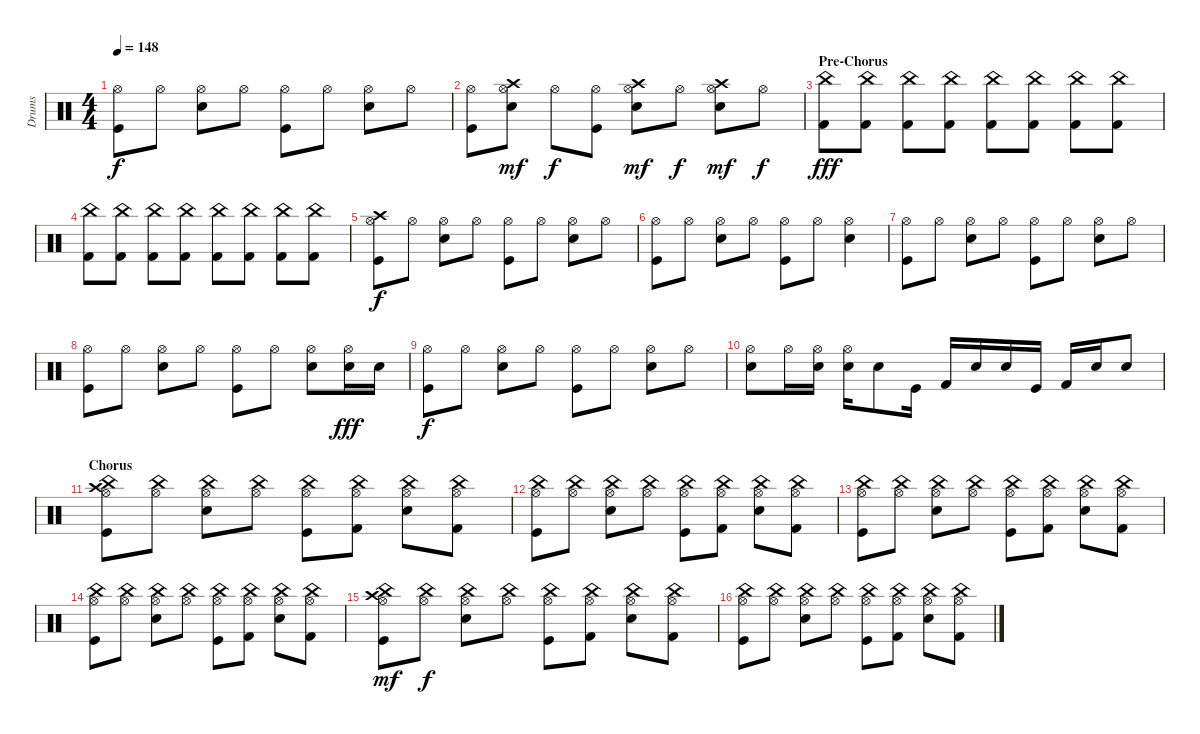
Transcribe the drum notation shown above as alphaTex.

\track ("Drums" "Drums") {instrument percussion}
\staff {score}
\articulation defaults
\ts (4 4)
\tempo 148
\clef neutral
\ks c
("Hi-Hat (open)" "Kick (hit)").8{dy f} "Hi-Hat (open)".8 ("Hi-Hat (open)" "Snare (hit) 2").8 "Hi-Hat (open)".8 ("Hi-Hat (open)" "Kick (hit)").8 "Hi-Hat (open)".8 ("Hi-Hat (open)" "Snare (hit) 2").8 "Hi-Hat (open)".8 |
("Hi-Hat (open)" "Kick (hit)").8 ("Crash high (hit)" "Hi-Hat (open)" "Snare (hit) 2").8{dy mf} "Hi-Hat (open)".8{dy f} ("Hi-Hat (open)" "Kick (hit)").8 ("Crash high (hit)" "Hi-Hat (open)" "Snare (hit) 2").8{dy mf} "Hi-Hat (open)".8{dy f} ("Crash high (hit)" "Hi-Hat (open)" "Snare (hit) 2").8{dy mf} "Hi-Hat (open)".8{dy f} |
\section ("" "Pre-Chorus")
("China (hit)" "Kick (hit) 2").8{dy fff} ("China (hit)" "Kick (hit) 2").8 ("China (hit)" "Kick (hit) 2").8 ("China (hit)" "Kick (hit) 2").8 ("China (hit)" "Kick (hit) 2").8 ("China (hit)" "Kick (hit) 2").8 ("China (hit)" "Kick (hit) 2").8 ("China (hit)" "Kick (hit) 2").8 |
("China (hit)" "Kick (hit) 2").8 ("China (hit)" "Kick (hit) 2").8 ("China (hit)" "Kick (hit) 2").8 ("China (hit)" "Kick (hit) 2").8 ("China (hit)" "Kick (hit) 2").8 ("China (hit)" "Kick (hit) 2").8 ("China (hit)" "Kick (hit) 2").8 ("China (hit)" "Kick (hit) 2").8 |
("Crash high (hit)" "Hi-Hat (open)" "Kick (hit)").8{dy f} "Hi-Hat (open)".8 ("Hi-Hat (open)" "Snare (hit) 2").8 "Hi-Hat (open)".8 ("Hi-Hat (open)" "Kick (hit)").8 "Hi-Hat (open)".8 ("Hi-Hat (open)" "Snare (hit) 2").8 "Hi-Hat (open)".8 |
("Hi-Hat (open)" "Kick (hit)").8 "Hi-Hat (open)".8 ("Hi-Hat (open)" "Snare (hit) 2").8 "Hi-Hat (open)".8 ("Hi-Hat (open)" "Kick (hit)").8 "Hi-Hat (open)".8 ("Hi-Hat (open)" "Snare (hit) 2").4 |
("Hi-Hat (open)" "Kick (hit)").8 "Hi-Hat (open)".8 ("Hi-Hat (open)" "Snare (hit) 2").8 "Hi-Hat (open)".8 ("Hi-Hat (open)" "Kick (hit)").8 "Hi-Hat (open)".8 ("Hi-Hat (open)" "Snare (hit) 2").8 "Hi-Hat (open)".8 |
("Hi-Hat (open)" "Kick (hit)").8 "Hi-Hat (open)".8 ("Hi-Hat (open)" "Snare (hit) 2").8 "Hi-Hat (open)".8 ("Hi-Hat (open)" "Kick (hit)").8 "Hi-Hat (open)".8 ("Hi-Hat (open)" "Snare (hit) 2").8 ("Hi-Hat (open)" "Electric Snare (hit)").16{dy fff} "Electric Snare (hit)".16 |
("Hi-Hat (open)" "Kick (hit)").8{dy f} "Hi-Hat (open)".8 ("Hi-Hat (open)" "Snare (hit) 2").8 "Hi-Hat (open)".8 ("Hi-Hat (open)" "Kick (hit)").8 "Hi-Hat (open)".8 ("Hi-Hat (open)" "Snare (hit) 2").8 "Hi-Hat (open)".8 |
("Hi-Hat (open)" "Snare (hit) 2").8 "Hi-Hat (open)".16 ("Hi-Hat (open)" "Snare (hit) 2").16 ("Hi-Hat (open)" "Electric Snare (hit)").16 "Snare (hit) 2".8 "Kick (hit)".16 "Kick (hit) 2".16 "Snare (hit) 2".16 "Electric Snare (hit)".16 "Kick (hit)".16 "Kick (hit) 2".16 "Snare (hit) 2".16 "Electric Snare (hit)".8 |
\section ("" "Chorus")
("Crash high (hit)" "Hi-Hat (open)" "China (hit)" "Kick (hit)").8 ("Hi-Hat (open)" "China (hit)").8 ("Hi-Hat (open)" "China (hit)" "Snare (hit) 2").8 ("Hi-Hat (open)" "China (hit)").8 ("Hi-Hat (open)" "China (hit)" "Kick (hit)").8 ("Hi-Hat (open)" "China (hit)" "Kick (hit) 2").8 ("Hi-Hat (open)" "China (hit)" "Snare (hit) 2").8 ("Hi-Hat (open)" "China (hit)" "Kick (hit) 2").8 |
("Hi-Hat (open)" "China (hit)" "Kick (hit)").8 ("Hi-Hat (open)" "China (hit)").8 ("Hi-Hat (open)" "China (hit)" "Snare (hit) 2").8 ("Hi-Hat (open)" "China (hit)").8 ("Hi-Hat (open)" "China (hit)" "Kick (hit)").8 ("Hi-Hat (open)" "China (hit)" "Kick (hit) 2").8 ("Hi-Hat (open)" "China (hit)" "Snare (hit) 2").8 ("Hi-Hat (open)" "China (hit)" "Kick (hit) 2").8 |
("Hi-Hat (open)" "China (hit)" "Kick (hit)").8 ("Hi-Hat (open)" "China (hit)").8 ("Hi-Hat (open)" "China (hit)" "Snare (hit) 2").8 ("Hi-Hat (open)" "China (hit)").8 ("Hi-Hat (open)" "China (hit)" "Kick (hit)").8 ("Hi-Hat (open)" "China (hit)" "Kick (hit) 2").8 ("Hi-Hat (open)" "China (hit)" "Snare (hit) 2").8 ("Hi-Hat (open)" "China (hit)" "Kick (hit) 2").8 |
("Hi-Hat (open)" "China (hit)" "Kick (hit)").8 ("Hi-Hat (open)" "China (hit)").8 ("Hi-Hat (open)" "China (hit)" "Snare (hit) 2").8 ("Hi-Hat (open)" "China (hit)").8 ("Hi-Hat (open)" "China (hit)" "Kick (hit)").8 ("Hi-Hat (open)" "China (hit)" "Kick (hit) 2").8 ("Hi-Hat (open)" "China (hit)" "Snare (hit) 2").8 ("Hi-Hat (open)" "China (hit)" "Kick (hit) 2").8 |
("Crash high (hit)" "Hi-Hat (open)" "China (hit)" "Kick (hit)").8{dy mf} ("Hi-Hat (open)" "China (hit)").8{dy f} ("Hi-Hat (open)" "China (hit)" "Snare (hit) 2").8 ("Hi-Hat (open)" "China (hit)").8 ("Hi-Hat (open)" "China (hit)" "Kick (hit)").8 ("Hi-Hat (open)" "China (hit)" "Kick (hit) 2").8 ("Hi-Hat (open)" "China (hit)" "Snare (hit) 2").8 ("Hi-Hat (open)" "China (hit)" "Kick (hit) 2").8 |
("Hi-Hat (open)" "China (hit)" "Kick (hit)").8 ("Hi-Hat (open)" "China (hit)").8 ("Hi-Hat (open)" "China (hit)" "Snare (hit) 2").8 ("Hi-Hat (open)" "China (hit)").8 ("Hi-Hat (open)" "China (hit)" "Kick (hit)").8 ("Hi-Hat (open)" "China (hit)" "Kick (hit) 2").8 ("Hi-Hat (open)" "China (hit)" "Snare (hit) 2").8 ("Hi-Hat (open)" "China (hit)" "Kick (hit) 2").8
